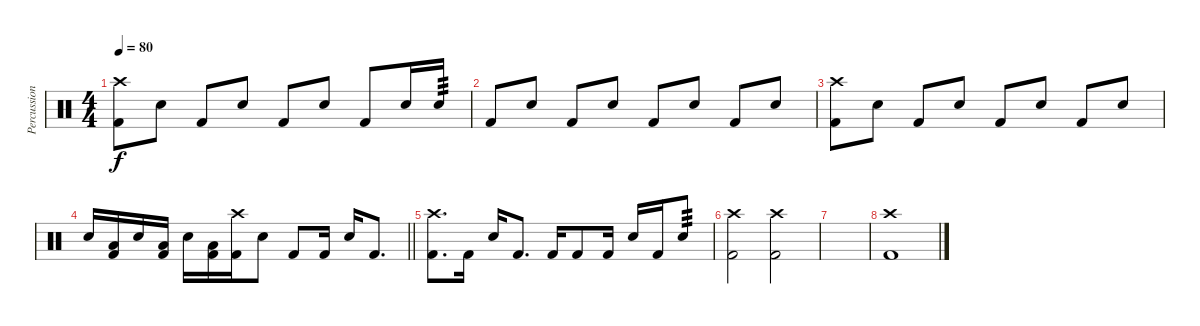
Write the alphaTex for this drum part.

\track ("Percussion" "Percussion") {instrument percussion}
\staff {score}
\articulation defaults
\ts (4 4)
\tempo 80
\clef neutral
\ks c
("Kick (hit) 2" "Crash high (hit)").8{dy f} "Snare (hit) 2".8 "Kick (hit) 2".8 "Snare (hit) 2".8 "Kick (hit) 2".8 "Snare (hit) 2".8 "Kick (hit) 2".8 "Snare (hit) 2".16 "Snare (hit) 2".16{tp 3} |
"Kick (hit) 2".8 "Snare (hit) 2".8 "Kick (hit) 2".8 "Snare (hit) 2".8 "Kick (hit) 2".8 "Snare (hit) 2".8 "Kick (hit) 2".8 "Snare (hit) 2".8 |
("Kick (hit) 2" "Crash high (hit)").8 "Snare (hit) 2".8 "Kick (hit) 2".8 "Snare (hit) 2".8 "Kick (hit) 2".8 "Snare (hit) 2".8 "Kick (hit) 2".8 "Snare (hit) 2".8 |
\barLineRight lightlight "Snare (hit) 2".16
("Kick (hit) 2" "Low Floor Tom (hit)").16 "Snare (hit) 2".16 ("Kick (hit) 2" "Low Floor Tom (hit)").16 "Snare (hit) 2".16 ("Kick (hit) 2" "Low Floor Tom (hit)").16 ("Kick (hit) 2" "Crash high (hit)").16 "Snare (hit) 2".8 "Kick (hit) 2".8 "Kick (hit) 2".16 "Snare (hit) 2".16 "Kick (hit) 2".8{d} |
("Kick (hit) 2" "Crash high (hit)").8{d} "Kick (hit) 2".16 "Snare (hit) 2".16 "Kick (hit) 2".8{d} "Kick (hit) 2".16 "Kick (hit) 2".8 "Kick (hit) 2".16 "Snare (hit) 2".16 "Kick (hit) 2".16 "Snare (hit) 2".8{tp 3} |
("Kick (hit) 2" "Crash high (hit)").2 ("Kick (hit) 2" "Crash high (hit)").2 |
|
("Kick (hit) 2" "Crash high (hit)").1
